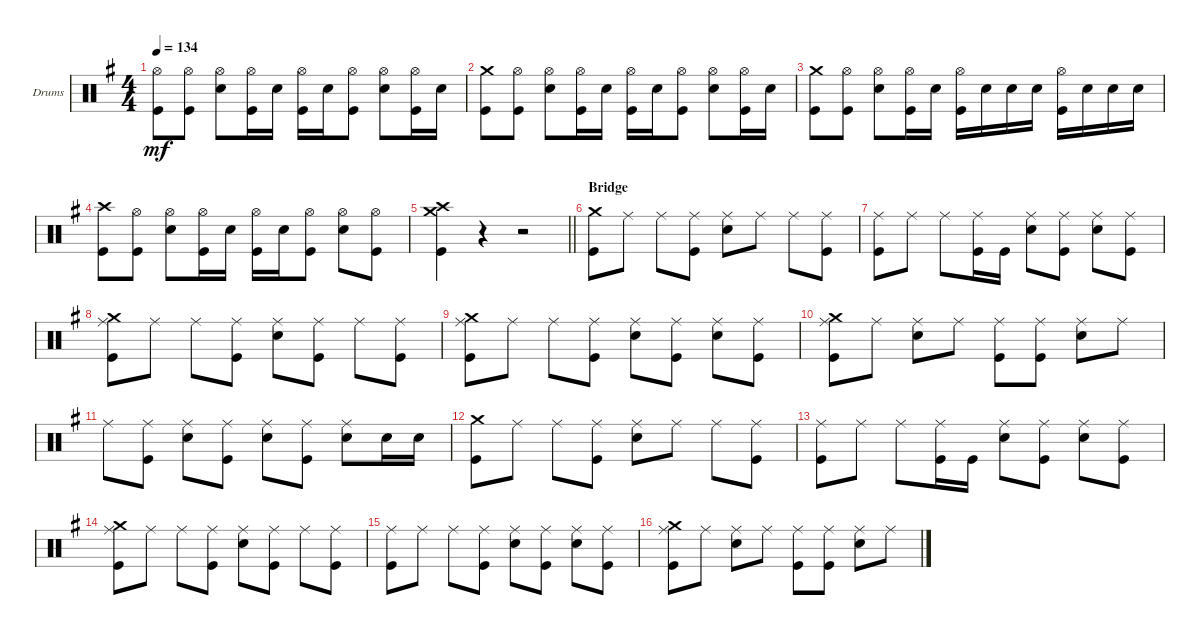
\bracketExtendMode groupsimilarinstruments
\firstSystemTrackNameOrientation horizontal
\otherSystemsTrackNameOrientation horizontal
\track ("drums (Anton Zulganov)" "Drums") {instrument percussion}
\staff {score}
\articulation defaults
\ts (4 4)
\tempo 134
\clef neutral
\ks eminor
("Hi-Hat (open)" "Kick (hit)").8{dy mf} ("Hi-Hat (open)" "Kick (hit)").8 ("Hi-Hat (open)" "Snare (hit) 2").8 ("Hi-Hat (open)" "Kick (hit)").16 "Snare (hit) 2".16 ("Hi-Hat (open)" "Kick (hit)").16 "Snare (hit) 2".16 ("Hi-Hat (open)" "Kick (hit)").8 ("Hi-Hat (open)" "Snare (hit) 2").8 ("Hi-Hat (open)" "Kick (hit)").16 "Snare (hit) 2".16 |
("Crash medium (hit)" "Kick (hit)").8 ("Hi-Hat (open)" "Kick (hit)").8 ("Hi-Hat (open)" "Snare (hit) 2").8 ("Hi-Hat (open)" "Kick (hit)").16 "Snare (hit) 2".16 ("Hi-Hat (open)" "Kick (hit)").16 "Snare (hit) 2".16 ("Hi-Hat (open)" "Kick (hit)").8 ("Hi-Hat (open)" "Snare (hit) 2").8 ("Hi-Hat (open)" "Kick (hit)").16 "Snare (hit) 2".16 |
("Crash medium (hit)" "Kick (hit)").8 ("Hi-Hat (open)" "Kick (hit)").8 ("Hi-Hat (open)" "Snare (hit) 2").8 ("Hi-Hat (open)" "Kick (hit)").16 "Snare (hit) 2".16 ("Hi-Hat (open)" "Kick (hit)").16 "Snare (hit) 2".16 "Snare (hit) 2".16 "Snare (hit) 2".16 ("Kick (hit)" "Hi-Hat (open)").16 "Snare (hit) 2".16 "Snare (hit) 2".16 "Snare (hit) 2".16 |
("Crash high (hit)" "Kick (hit)").8 ("Hi-Hat (open)" "Kick (hit)").8 ("Hi-Hat (open)" "Snare (hit) 2").8 ("Hi-Hat (open)" "Kick (hit)").16 "Snare (hit) 2".16 ("Hi-Hat (open)" "Kick (hit)").16 "Snare (hit) 2".16 ("Hi-Hat (open)" "Kick (hit)").8 ("Hi-Hat (open)" "Snare (hit) 2").8 ("Hi-Hat (open)" "Kick (hit)").8 |
\barLineRight lightlight
("Crash medium (hit)" "Kick (hit)" "Crash high (hit)").4 r.4 r.2 |
\section ("" "Bridge")
("Crash medium (hit)" "Kick (hit)").8 "Ride (middle)".8 "Ride (middle)".8 ("Ride (middle)" "Kick (hit)").8 ("Ride (middle)" "Snare (hit) 2").8 "Ride (middle)".8 "Ride (middle)".8 ("Ride (middle)" "Kick (hit)").8 |
("Ride (middle)" "Kick (hit)").8 "Ride (middle)".8 "Ride (middle)".8 ("Ride (middle)" "Kick (hit)").16 "Kick (hit)".16 ("Ride (middle)" "Snare (hit) 2").8 ("Ride (middle)" "Kick (hit)").8 ("Ride (middle)" "Snare (hit) 2").8 ("Ride (middle)" "Kick (hit)").8 |
("Ride (middle)" "Kick (hit)" "Crash medium (hit)").8 "Ride (middle)".8 "Ride (middle)".8 ("Ride (middle)" "Kick (hit)").8 ("Ride (middle)" "Snare (hit) 2").8 ("Ride (middle)" "Kick (hit)").8 "Ride (middle)".8 ("Ride (middle)" "Kick (hit)").8 |
("Ride (middle)" "Kick (hit)" "Crash medium (hit)").8 "Ride (middle)".8 "Ride (middle)".8 ("Ride (middle)" "Kick (hit)").8 ("Ride (middle)" "Snare (hit) 2").8 ("Ride (middle)" "Kick (hit)").8 ("Ride (middle)" "Snare (hit) 2").8 ("Ride (middle)" "Kick (hit)").8 |
("Ride (middle)" "Kick (hit)" "Crash medium (hit)").8 "Ride (middle)".8 ("Ride (middle)" "Snare (hit) 2").8 "Ride (middle)".8 ("Ride (middle)" "Kick (hit)").8 ("Ride (middle)" "Kick (hit)").8 ("Ride (middle)" "Snare (hit) 2").8 "Ride (middle)".8 |
"Ride (middle)".8 ("Ride (middle)" "Kick (hit)").8 ("Ride (middle)" "Snare (hit) 2").8 ("Ride (middle)" "Kick (hit)").8 ("Ride (middle)" "Snare (hit) 2").8 ("Ride (middle)" "Kick (hit)").8 ("Snare (hit) 2" "Ride (middle)").8 "Snare (hit) 2".16 "Snare (hit) 2".16 |
("Crash medium (hit)" "Kick (hit)").8 "Ride (middle)".8 "Ride (middle)".8 ("Ride (middle)" "Kick (hit)").8 ("Ride (middle)" "Snare (hit) 2").8 "Ride (middle)".8 "Ride (middle)".8 ("Ride (middle)" "Kick (hit)").8 |
("Ride (middle)" "Kick (hit)").8 "Ride (middle)".8 "Ride (middle)".8 ("Ride (middle)" "Kick (hit)").16 "Kick (hit)".16 ("Ride (middle)" "Snare (hit) 2").8 ("Ride (middle)" "Kick (hit)").8 ("Ride (middle)" "Snare (hit) 2").8 ("Ride (middle)" "Kick (hit)").8 |
("Ride (middle)" "Kick (hit)" "Crash medium (hit)").8 "Ride (middle)".8 "Ride (middle)".8 ("Ride (middle)" "Kick (hit)").8 ("Ride (middle)" "Snare (hit) 2").8 ("Ride (middle)" "Kick (hit)").8 "Ride (middle)".8 ("Ride (middle)" "Kick (hit)").8 |
("Ride (middle)" "Kick (hit)").8 "Ride (middle)".8 "Ride (middle)".8 ("Ride (middle)" "Kick (hit)").8 ("Ride (middle)" "Snare (hit) 2").8 ("Ride (middle)" "Kick (hit)").8 ("Ride (middle)" "Snare (hit) 2").8 ("Ride (middle)" "Kick (hit)").8 |
("Ride (middle)" "Kick (hit)" "Crash medium (hit)").8 "Ride (middle)".8 ("Ride (middle)" "Snare (hit) 2").8 "Ride (middle)".8 ("Ride (middle)" "Kick (hit)").8 ("Ride (middle)" "Kick (hit)").8 ("Ride (middle)" "Snare (hit) 2").8 "Ride (middle)".8
